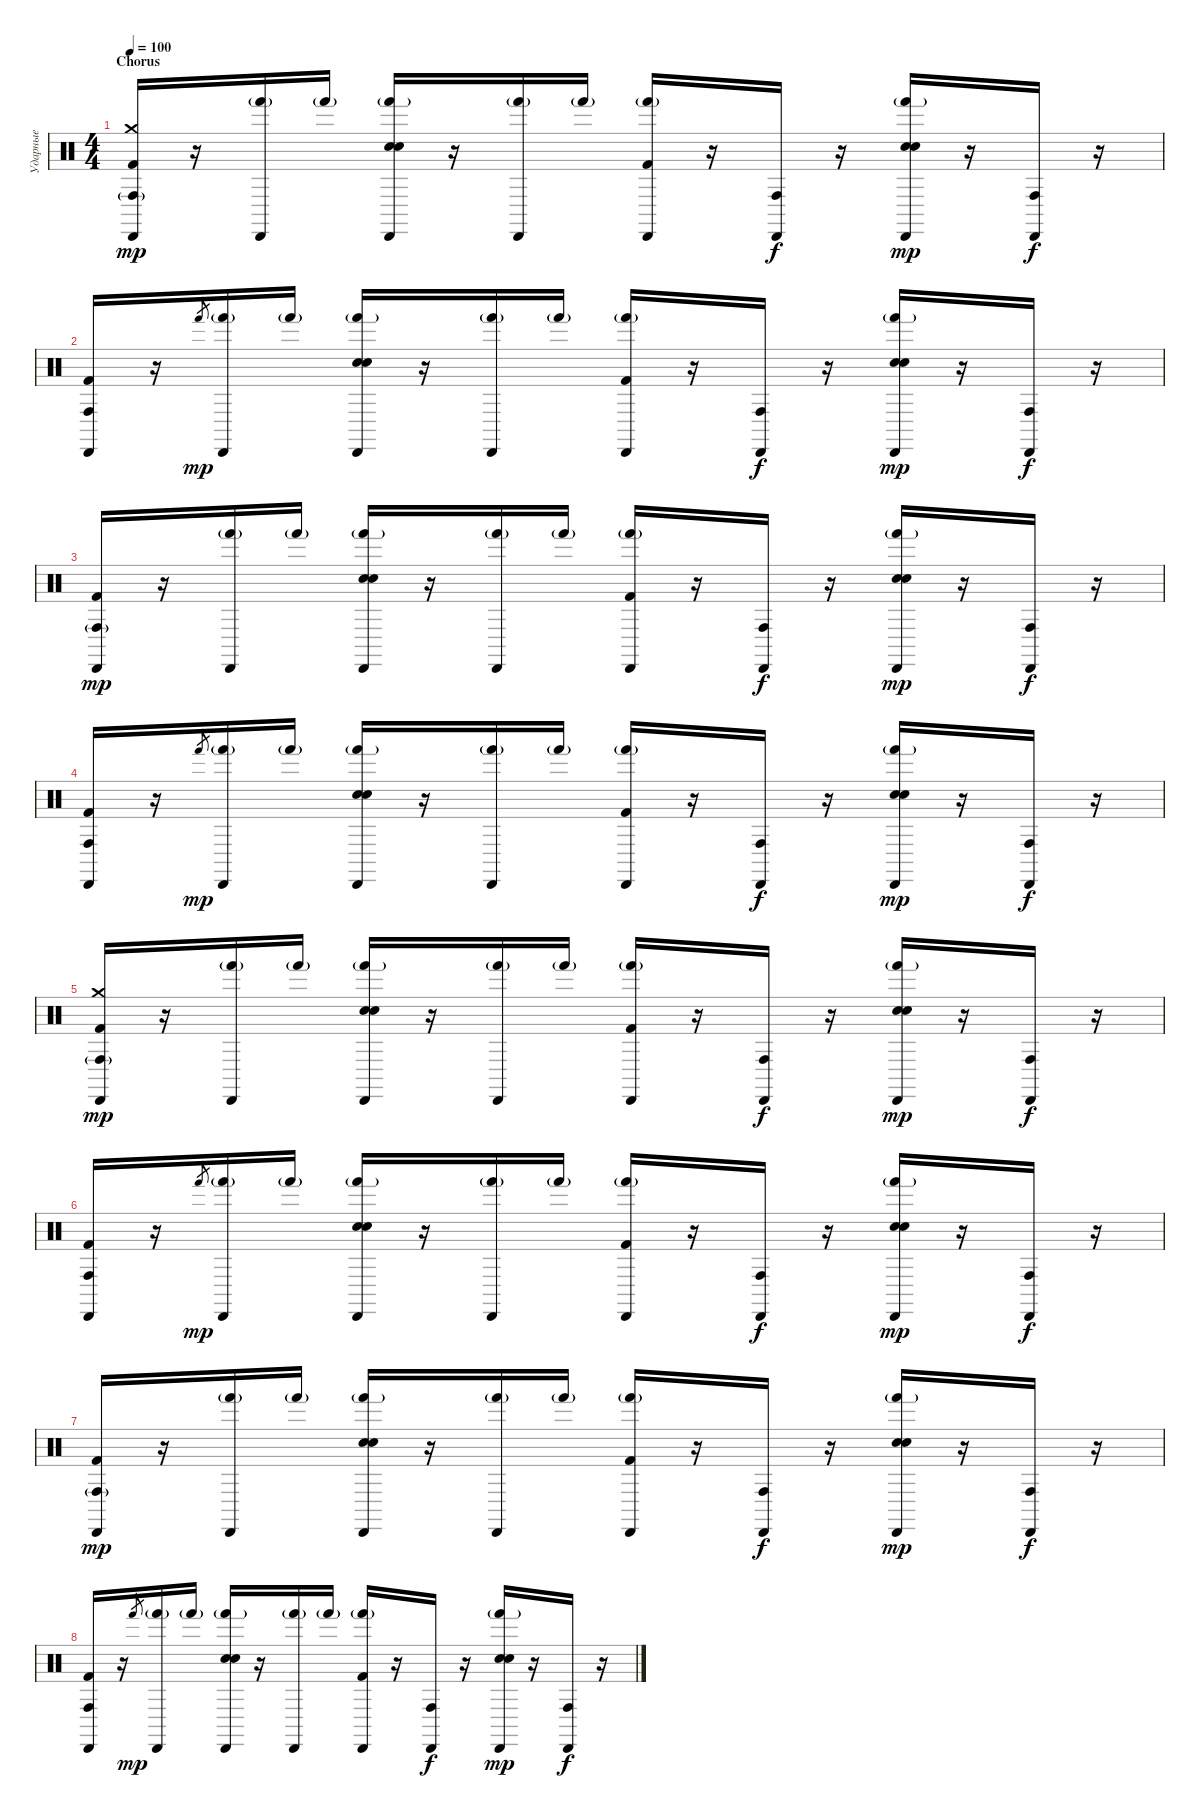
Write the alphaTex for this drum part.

\track ("Ударные" "Ударные") {instrument percussion}
\staff {score}
\articulation defaults
\ts (4 4)
\section ("" "Chorus")
\tempo 100
\clef neutral
\ks c
("Crash medium (hit)" "Kick (hit) 2" "Conga high (hit)"{g} "Cabasa (hit)").16{dy mp} r.16 ("Hand (hit)"{g} "Cabasa (hit)").16 "Hand (hit)"{g}.16 ("Hand Clap (hit)" "Snare (hit) 2" "Hand (hit)"{g} "Cabasa (hit)").16 r.16 ("Hand (hit)"{g} "Cabasa (hit)").16 "Hand (hit)"{g}.16 ("Kick (hit) 2" "Hand (hit)"{g} "Cabasa (hit)").16 r.16 ("Conga high (hit)" "Cabasa (hit)").16{dy f} r.16 ("Hand Clap (hit)" "Snare (hit) 2" "Hand (hit)"{g} "Cabasa (hit)").16{dy mp} r.16 ("Conga high (hit)" "Cabasa (hit)").16{dy f} r.16 |
("Kick (hit) 2" "Conga high (hit)" "Cabasa (hit)").16 r.16 "Hand (hit)".8{gr dy mp} ("Hand (hit)"{g} "Cabasa (hit)").16 "Hand (hit)"{g}.16 ("Hand Clap (hit)" "Snare (hit) 2" "Hand (hit)"{g} "Cabasa (hit)").16 r.16 ("Hand (hit)"{g} "Cabasa (hit)").16 "Hand (hit)"{g}.16 ("Kick (hit) 2" "Hand (hit)"{g} "Cabasa (hit)").16 r.16 ("Conga high (hit)" "Cabasa (hit)").16{dy f} r.16 ("Hand Clap (hit)" "Snare (hit) 2" "Hand (hit)"{g} "Cabasa (hit)").16{dy mp} r.16 ("Conga high (hit)" "Cabasa (hit)").16{dy f} r.16 |
("Kick (hit) 2" "Conga high (hit)"{g} "Cabasa (hit)").16{dy mp} r.16 ("Hand (hit)"{g} "Cabasa (hit)").16 "Hand (hit)"{g}.16 ("Hand Clap (hit)" "Snare (hit) 2" "Hand (hit)"{g} "Cabasa (hit)").16 r.16 ("Hand (hit)"{g} "Cabasa (hit)").16 "Hand (hit)"{g}.16 ("Kick (hit) 2" "Hand (hit)"{g} "Cabasa (hit)").16 r.16 ("Conga high (hit)" "Cabasa (hit)").16{dy f} r.16 ("Hand Clap (hit)" "Snare (hit) 2" "Hand (hit)"{g} "Cabasa (hit)").16{dy mp} r.16 ("Conga high (hit)" "Cabasa (hit)").16{dy f} r.16 |
("Kick (hit) 2" "Conga high (hit)" "Cabasa (hit)").16 r.16 "Hand (hit)".8{gr dy mp} ("Hand (hit)"{g} "Cabasa (hit)").16 "Hand (hit)"{g}.16 ("Hand Clap (hit)" "Snare (hit) 2" "Hand (hit)"{g} "Cabasa (hit)").16 r.16 ("Hand (hit)"{g} "Cabasa (hit)").16 "Hand (hit)"{g}.16 ("Kick (hit) 2" "Hand (hit)"{g} "Cabasa (hit)").16 r.16 ("Conga high (hit)" "Cabasa (hit)").16{dy f} r.16 ("Hand Clap (hit)" "Snare (hit) 2" "Hand (hit)"{g} "Cabasa (hit)").16{dy mp} r.16 ("Conga high (hit)" "Cabasa (hit)").16{dy f} r.16 |
("Crash medium (hit)" "Kick (hit) 2" "Conga high (hit)"{g} "Cabasa (hit)").16{dy mp} r.16 ("Hand (hit)"{g} "Cabasa (hit)").16 "Hand (hit)"{g}.16 ("Hand Clap (hit)" "Snare (hit) 2" "Hand (hit)"{g} "Cabasa (hit)").16 r.16 ("Hand (hit)"{g} "Cabasa (hit)").16 "Hand (hit)"{g}.16 ("Kick (hit) 2" "Hand (hit)"{g} "Cabasa (hit)").16 r.16 ("Conga high (hit)" "Cabasa (hit)").16{dy f} r.16 ("Hand Clap (hit)" "Snare (hit) 2" "Hand (hit)"{g} "Cabasa (hit)").16{dy mp} r.16 ("Conga high (hit)" "Cabasa (hit)").16{dy f} r.16 |
("Kick (hit) 2" "Conga high (hit)" "Cabasa (hit)").16 r.16 "Hand (hit)".8{gr dy mp} ("Hand (hit)"{g} "Cabasa (hit)").16 "Hand (hit)"{g}.16 ("Hand Clap (hit)" "Snare (hit) 2" "Hand (hit)"{g} "Cabasa (hit)").16 r.16 ("Hand (hit)"{g} "Cabasa (hit)").16 "Hand (hit)"{g}.16 ("Kick (hit) 2" "Hand (hit)"{g} "Cabasa (hit)").16 r.16 ("Conga high (hit)" "Cabasa (hit)").16{dy f} r.16 ("Hand Clap (hit)" "Snare (hit) 2" "Hand (hit)"{g} "Cabasa (hit)").16{dy mp} r.16 ("Conga high (hit)" "Cabasa (hit)").16{dy f} r.16 |
("Kick (hit) 2" "Conga high (hit)"{g} "Cabasa (hit)").16{dy mp} r.16 ("Hand (hit)"{g} "Cabasa (hit)").16 "Hand (hit)"{g}.16 ("Hand Clap (hit)" "Snare (hit) 2" "Hand (hit)"{g} "Cabasa (hit)").16 r.16 ("Hand (hit)"{g} "Cabasa (hit)").16 "Hand (hit)"{g}.16 ("Kick (hit) 2" "Hand (hit)"{g} "Cabasa (hit)").16 r.16 ("Conga high (hit)" "Cabasa (hit)").16{dy f} r.16 ("Hand Clap (hit)" "Snare (hit) 2" "Hand (hit)"{g} "Cabasa (hit)").16{dy mp} r.16 ("Conga high (hit)" "Cabasa (hit)").16{dy f} r.16 |
("Kick (hit) 2" "Conga high (hit)" "Cabasa (hit)").16 r.16 "Hand (hit)".8{gr dy mp} ("Hand (hit)"{g} "Cabasa (hit)").16 "Hand (hit)"{g}.16 ("Hand Clap (hit)" "Snare (hit) 2" "Hand (hit)"{g} "Cabasa (hit)").16 r.16 ("Hand (hit)"{g} "Cabasa (hit)").16 "Hand (hit)"{g}.16 ("Kick (hit) 2" "Hand (hit)"{g} "Cabasa (hit)").16 r.16 ("Conga high (hit)" "Cabasa (hit)").16{dy f} r.16 ("Hand Clap (hit)" "Snare (hit) 2" "Hand (hit)"{g} "Cabasa (hit)").16{dy mp} r.16 ("Conga high (hit)" "Cabasa (hit)").16{dy f} r.16
